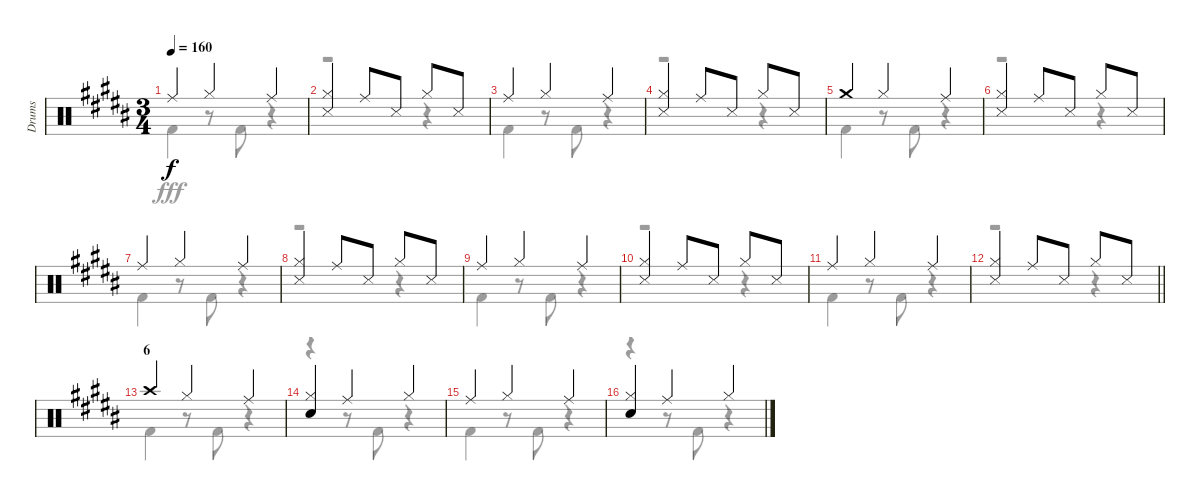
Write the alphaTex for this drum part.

\track ("Drums" "Drums") {instrument percussion}
\staff {score}
\articulation defaults
\voice
\ts (3 4)
\tempo 160
\clef neutral
\ks b "Ride (middle)".4{dy f} "Hi-Hat (closed)".4 "Ride (middle)".4
|
("Hi-Hat (closed)" "Snare (side stick) 3").4 "Ride (middle)".8 "Snare (side stick) 3".8 "Hi-Hat (closed)".8 "Snare (side stick) 3".8 |
"Ride (middle)".4 "Hi-Hat (closed)".4 "Ride (middle)".4 |
("Hi-Hat (closed)" "Snare (side stick) 3").4 "Ride (middle)".8 "Snare (side stick) 3".8 "Hi-Hat (closed)".8 "Snare (side stick) 3".8 |
"Crash medium (hit)".4 "Hi-Hat (closed)".4 "Ride (middle)".4 |
("Hi-Hat (closed)" "Snare (side stick) 3").4 "Ride (middle)".8 "Snare (side stick) 3".8 "Hi-Hat (closed)".8 "Snare (side stick) 3".8 |
"Ride (middle)".4 "Hi-Hat (closed)".4 "Ride (middle)".4 |
("Hi-Hat (closed)" "Snare (side stick) 3").4 "Ride (middle)".8 "Snare (side stick) 3".8 "Hi-Hat (closed)".8 "Snare (side stick) 3".8 |
"Ride (middle)".4 "Hi-Hat (closed)".4 "Ride (middle)".4 |
("Hi-Hat (closed)" "Snare (side stick) 3").4 "Ride (middle)".8 "Snare (side stick) 3".8 "Hi-Hat (closed)".8 "Snare (side stick) 3".8 |
"Ride (middle)".4 "Hi-Hat (closed)".4 "Ride (middle)".4 |
\barLineRight lightlight
("Hi-Hat (closed)" "Snare (side stick) 3").4 "Ride (middle)".8 "Snare (side stick) 3".8 "Hi-Hat (closed)".8 "Snare (side stick) 3".8 |
\section ("" "6")
"Crash high (hit)".4 "Hi-Hat (closed)".4 "Ride (middle)".4 |
("Hi-Hat (closed)" "Snare (hit) 2").4 "Ride (middle)".4 "Hi-Hat (closed)".4 |
"Ride (middle)".4 "Hi-Hat (closed)".4 "Ride (middle)".4 |
("Hi-Hat (closed)" "Snare (hit) 2").4 "Ride (middle)".4 "Hi-Hat (closed)".4
\voice
\clef neutral
\ottava regular
\simile none
\ks b "Kick (hit) 2".4{dy fff}
r.8 "Kick (hit) 2".8 r.4 |
r.2 r.4 |
"Kick (hit) 2".4 r.8 "Kick (hit) 2".8 r.4 |
r.2 r.4 |
"Kick (hit) 2".4 r.8 "Kick (hit) 2".8 r.4 |
r.2 r.4 |
"Kick (hit) 2".4 r.8 "Kick (hit) 2".8 r.4 |
r.2 r.4 |
"Kick (hit) 2".4 r.8 "Kick (hit) 2".8 r.4 |
r.2 r.4 |
"Kick (hit) 2".4 r.8 "Kick (hit) 2".8 r.4 |
\barLineRight lightlight
r.2 r.4 |
"Kick (hit) 2".4 r.8 "Kick (hit) 2".8 r.4 |
r.4 r.8 "Kick (hit) 2".8 r.4 |
"Kick (hit) 2".4 r.8 "Kick (hit) 2".8 r.4 |
r.4 r.8 "Kick (hit) 2".8 r.4
